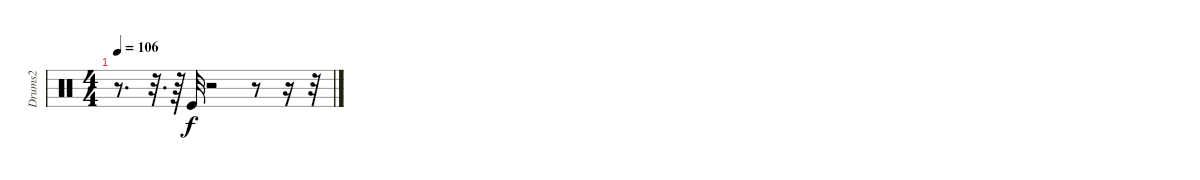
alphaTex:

\track ("Drums2" "Drums2") {instrument percussion}
\staff {score}
\articulation defaults
\ts (4 4)
\tempo 106
\clef neutral
\ks c
r.8{d dy mf} r.32{d} r.64 "Kick (hit)".32{dy f} r.2 r.8 r.16 r.32
